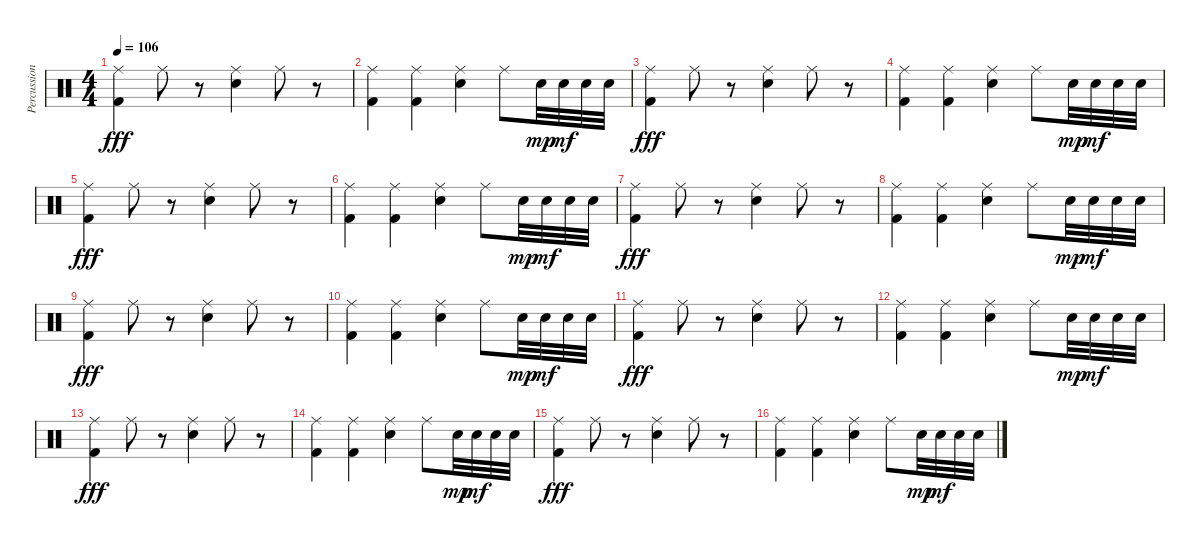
\track ("Percussion" "Percussion") {instrument percussion}
\staff {score}
\articulation defaults
\ts (4 4)
\tempo 106
\clef neutral
\ks c
("Kick (hit) 2" "Ride (middle)").4{dy fff} "Ride (middle)".8 r.8 ("Snare (hit) 2" "Ride (middle)").4 "Ride (middle)".8 r.8 |
("Kick (hit) 2" "Ride (middle)").4 ("Kick (hit) 2" "Ride (middle)").4 ("Snare (hit) 2" "Ride (middle)").4 "Ride (middle)".8 "Snare (hit) 2".32{dy mp} "Snare (hit) 2".32{dy mf} "Snare (hit) 2".32 "Snare (hit) 2".32 |
("Kick (hit) 2" "Ride (middle)").4{dy fff} "Ride (middle)".8 r.8 ("Snare (hit) 2" "Ride (middle)").4 "Ride (middle)".8 r.8 |
("Kick (hit) 2" "Ride (middle)").4 ("Kick (hit) 2" "Ride (middle)").4 ("Snare (hit) 2" "Ride (middle)").4 "Ride (middle)".8 "Snare (hit) 2".32{dy mp} "Snare (hit) 2".32{dy mf} "Snare (hit) 2".32 "Snare (hit) 2".32 |
("Kick (hit) 2" "Ride (middle)").4{dy fff} "Ride (middle)".8 r.8 ("Snare (hit) 2" "Ride (middle)").4 "Ride (middle)".8 r.8 |
("Kick (hit) 2" "Ride (middle)").4 ("Kick (hit) 2" "Ride (middle)").4 ("Snare (hit) 2" "Ride (middle)").4 "Ride (middle)".8 "Snare (hit) 2".32{dy mp} "Snare (hit) 2".32{dy mf} "Snare (hit) 2".32 "Snare (hit) 2".32 |
("Kick (hit) 2" "Ride (middle)").4{dy fff} "Ride (middle)".8 r.8 ("Snare (hit) 2" "Ride (middle)").4 "Ride (middle)".8 r.8 |
("Kick (hit) 2" "Ride (middle)").4 ("Kick (hit) 2" "Ride (middle)").4 ("Snare (hit) 2" "Ride (middle)").4 "Ride (middle)".8 "Snare (hit) 2".32{dy mp} "Snare (hit) 2".32{dy mf} "Snare (hit) 2".32 "Snare (hit) 2".32 |
("Kick (hit) 2" "Ride (middle)").4{dy fff} "Ride (middle)".8 r.8 ("Snare (hit) 2" "Ride (middle)").4 "Ride (middle)".8 r.8 |
("Kick (hit) 2" "Ride (middle)").4 ("Kick (hit) 2" "Ride (middle)").4 ("Snare (hit) 2" "Ride (middle)").4 "Ride (middle)".8 "Snare (hit) 2".32{dy mp} "Snare (hit) 2".32{dy mf} "Snare (hit) 2".32 "Snare (hit) 2".32 |
("Kick (hit) 2" "Ride (middle)").4{dy fff} "Ride (middle)".8 r.8 ("Snare (hit) 2" "Ride (middle)").4 "Ride (middle)".8 r.8 |
("Kick (hit) 2" "Ride (middle)").4 ("Kick (hit) 2" "Ride (middle)").4 ("Snare (hit) 2" "Ride (middle)").4 "Ride (middle)".8 "Snare (hit) 2".32{dy mp} "Snare (hit) 2".32{dy mf} "Snare (hit) 2".32 "Snare (hit) 2".32 |
("Kick (hit) 2" "Ride (middle)").4{dy fff} "Ride (middle)".8 r.8 ("Snare (hit) 2" "Ride (middle)").4 "Ride (middle)".8 r.8 |
("Kick (hit) 2" "Ride (middle)").4 ("Kick (hit) 2" "Ride (middle)").4 ("Snare (hit) 2" "Ride (middle)").4 "Ride (middle)".8 "Snare (hit) 2".32{dy mp} "Snare (hit) 2".32{dy mf} "Snare (hit) 2".32 "Snare (hit) 2".32 |
("Kick (hit) 2" "Ride (middle)").4{dy fff} "Ride (middle)".8 r.8 ("Snare (hit) 2" "Ride (middle)").4 "Ride (middle)".8 r.8 |
("Kick (hit) 2" "Ride (middle)").4 ("Kick (hit) 2" "Ride (middle)").4 ("Snare (hit) 2" "Ride (middle)").4 "Ride (middle)".8 "Snare (hit) 2".32{dy mp} "Snare (hit) 2".32{dy mf} "Snare (hit) 2".32 "Snare (hit) 2".32
